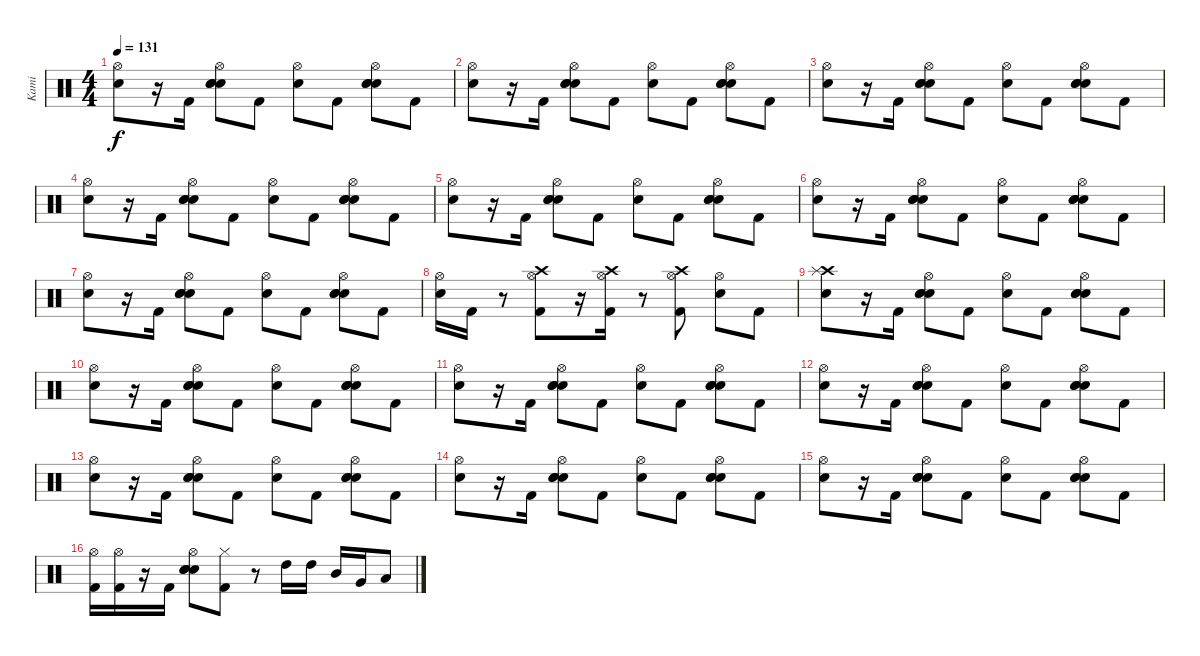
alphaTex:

\track ("Kami" "Kami") {instrument percussion}
\staff {score}
\articulation defaults
\ts (4 4)
\tempo 131
\clef neutral
\ks c
("Hi-Hat (open)" "Electric Snare (hit)").8{dy f} r.16 "Kick (hit) 2".16 ("Electric Snare (hit)" "Hi-Hat (open)" "Electric Snare (hit)" "Electric Snare (hit)").8 "Kick (hit) 2".8 ("Hi-Hat (open)" "Electric Snare (hit)").8 "Kick (hit) 2".8 ("Electric Snare (hit)" "Hi-Hat (open)" "Electric Snare (hit)" "Electric Snare (hit)").8 "Kick (hit) 2".8 |
("Hi-Hat (open)" "Electric Snare (hit)").8 r.16 "Kick (hit) 2".16 ("Electric Snare (hit)" "Hi-Hat (open)" "Electric Snare (hit)" "Electric Snare (hit)").8 "Kick (hit) 2".8 ("Hi-Hat (open)" "Electric Snare (hit)").8 "Kick (hit) 2".8 ("Electric Snare (hit)" "Hi-Hat (open)" "Electric Snare (hit)" "Electric Snare (hit)").8 "Kick (hit) 2".8 |
("Hi-Hat (open)" "Electric Snare (hit)").8 r.16 "Kick (hit) 2".16 ("Electric Snare (hit)" "Hi-Hat (open)" "Electric Snare (hit)" "Electric Snare (hit)").8 "Kick (hit) 2".8 ("Hi-Hat (open)" "Electric Snare (hit)").8 "Kick (hit) 2".8 ("Electric Snare (hit)" "Hi-Hat (open)" "Electric Snare (hit)" "Electric Snare (hit)").8 "Kick (hit) 2".8 |
("Hi-Hat (open)" "Electric Snare (hit)").8 r.16 "Kick (hit) 2".16 ("Electric Snare (hit)" "Hi-Hat (open)" "Electric Snare (hit)" "Electric Snare (hit)").8 "Kick (hit) 2".8 ("Hi-Hat (open)" "Electric Snare (hit)").8 "Kick (hit) 2".8 ("Electric Snare (hit)" "Hi-Hat (open)" "Electric Snare (hit)" "Electric Snare (hit)").8 "Kick (hit) 2".8 |
("Hi-Hat (open)" "Electric Snare (hit)").8 r.16 "Kick (hit) 2".16 ("Electric Snare (hit)" "Hi-Hat (open)" "Electric Snare (hit)" "Electric Snare (hit)").8 "Kick (hit) 2".8 ("Hi-Hat (open)" "Electric Snare (hit)").8 "Kick (hit) 2".8 ("Electric Snare (hit)" "Hi-Hat (open)" "Electric Snare (hit)" "Electric Snare (hit)").8 "Kick (hit) 2".8 |
("Hi-Hat (open)" "Electric Snare (hit)").8 r.16 "Kick (hit) 2".16 ("Electric Snare (hit)" "Hi-Hat (open)" "Electric Snare (hit)" "Electric Snare (hit)").8 "Kick (hit) 2".8 ("Hi-Hat (open)" "Electric Snare (hit)").8 "Kick (hit) 2".8 ("Electric Snare (hit)" "Hi-Hat (open)" "Electric Snare (hit)" "Electric Snare (hit)").8 "Kick (hit) 2".8 |
("Hi-Hat (open)" "Electric Snare (hit)").8 r.16 "Kick (hit) 2".16 ("Electric Snare (hit)" "Hi-Hat (open)" "Electric Snare (hit)" "Electric Snare (hit)").8 "Kick (hit) 2".8 ("Hi-Hat (open)" "Electric Snare (hit)").8 "Kick (hit) 2".8 ("Electric Snare (hit)" "Hi-Hat (open)" "Electric Snare (hit)" "Electric Snare (hit)").8 "Kick (hit) 2".8 |
("Hi-Hat (open)" "Electric Snare (hit)").16 "Kick (hit) 2".16 r.8 ("Hi-Hat (open)" "Kick (hit) 2" "Crash high (hit)").8 r.16 ("Hi-Hat (open)" "Kick (hit) 2" "Crash high (hit)").16 r.8 ("Hi-Hat (open)" "Kick (hit) 2" "Crash high (hit)").8 ("Hi-Hat (open)" "Electric Snare (hit)").8 "Kick (hit) 2".8 |
("Crash high (hit)" "Electric Snare (hit)" "Splash (hit)").8 r.16 "Kick (hit) 2".16 ("Electric Snare (hit)" "Hi-Hat (open)" "Electric Snare (hit)" "Electric Snare (hit)").8 "Kick (hit) 2".8 ("Hi-Hat (open)" "Electric Snare (hit)").8 "Kick (hit) 2".8 ("Electric Snare (hit)" "Hi-Hat (open)" "Electric Snare (hit)" "Electric Snare (hit)").8 "Kick (hit) 2".8 |
("Hi-Hat (open)" "Electric Snare (hit)").8 r.16 "Kick (hit) 2".16 ("Electric Snare (hit)" "Hi-Hat (open)" "Electric Snare (hit)" "Electric Snare (hit)").8 "Kick (hit) 2".8 ("Hi-Hat (open)" "Electric Snare (hit)").8 "Kick (hit) 2".8 ("Electric Snare (hit)" "Hi-Hat (open)" "Electric Snare (hit)" "Electric Snare (hit)").8 "Kick (hit) 2".8 |
("Hi-Hat (open)" "Electric Snare (hit)").8 r.16 "Kick (hit) 2".16 ("Electric Snare (hit)" "Hi-Hat (open)" "Electric Snare (hit)" "Electric Snare (hit)").8 "Kick (hit) 2".8 ("Hi-Hat (open)" "Electric Snare (hit)").8 "Kick (hit) 2".8 ("Electric Snare (hit)" "Hi-Hat (open)" "Electric Snare (hit)" "Electric Snare (hit)").8 "Kick (hit) 2".8 |
("Hi-Hat (open)" "Electric Snare (hit)").8 r.16 "Kick (hit) 2".16 ("Electric Snare (hit)" "Hi-Hat (open)" "Electric Snare (hit)" "Electric Snare (hit)").8 "Kick (hit) 2".8 ("Hi-Hat (open)" "Electric Snare (hit)").8 "Kick (hit) 2".8 ("Electric Snare (hit)" "Hi-Hat (open)" "Electric Snare (hit)" "Electric Snare (hit)").8 "Kick (hit) 2".8 |
("Hi-Hat (open)" "Electric Snare (hit)").8 r.16 "Kick (hit) 2".16 ("Electric Snare (hit)" "Hi-Hat (open)" "Electric Snare (hit)" "Electric Snare (hit)").8 "Kick (hit) 2".8 ("Hi-Hat (open)" "Electric Snare (hit)").8 "Kick (hit) 2".8 ("Electric Snare (hit)" "Hi-Hat (open)" "Electric Snare (hit)" "Electric Snare (hit)").8 "Kick (hit) 2".8 |
("Hi-Hat (open)" "Electric Snare (hit)").8 r.16 "Kick (hit) 2".16 ("Electric Snare (hit)" "Hi-Hat (open)" "Electric Snare (hit)" "Electric Snare (hit)").8 "Kick (hit) 2".8 ("Hi-Hat (open)" "Electric Snare (hit)").8 "Kick (hit) 2".8 ("Electric Snare (hit)" "Hi-Hat (open)" "Electric Snare (hit)" "Electric Snare (hit)").8 "Kick (hit) 2".8 |
("Hi-Hat (open)" "Electric Snare (hit)").8 r.16 "Kick (hit) 2".16 ("Electric Snare (hit)" "Hi-Hat (open)" "Electric Snare (hit)" "Electric Snare (hit)").8 "Kick (hit) 2".8 ("Hi-Hat (open)" "Electric Snare (hit)").8 "Kick (hit) 2".8 ("Electric Snare (hit)" "Hi-Hat (open)" "Electric Snare (hit)" "Electric Snare (hit)").8 "Kick (hit) 2".8 |
("Hi-Hat (open)" "Kick (hit) 2").16 ("Hi-Hat (open)" "Kick (hit) 2").16 r.16 "Kick (hit) 2".16 ("Electric Snare (hit)" "Hi-Hat (open)" "Electric Snare (hit)" "Electric Snare (hit)").8 ("Hi-Hat (closed)" "Kick (hit) 2").8 r.8 "High Tom (hit)".16 "High Tom (hit)".16 "Mid Tom (hit)".16 "Very Low Tom (hit)".16 "Low Floor Tom (hit)".8
